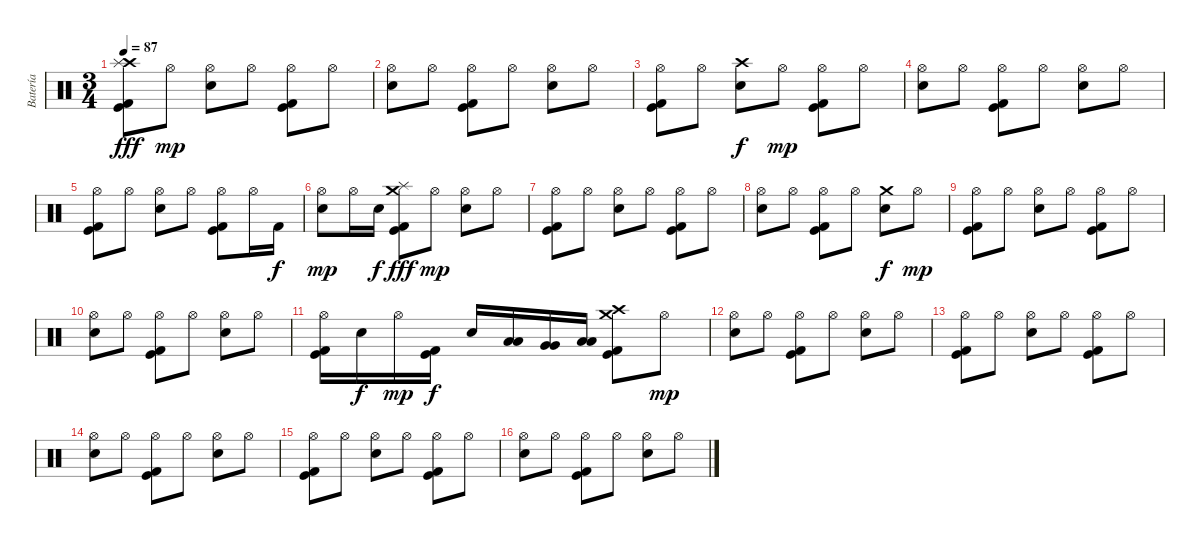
\track ("Batería" "Batería") {instrument percussion}
\staff {score}
\articulation defaults
\ts (3 4)
\tempo 87
\clef neutral
\ks c
("Crash high (hit)" "Splash (hit)" "Kick (hit)" "Kick (hit) 2").8{dy fff} "Hi-Hat (open)".8{dy mp} ("Hi-Hat (open)" "Electric Snare (hit)").8 "Hi-Hat (open)".8 ("Hi-Hat (open)" "Kick (hit)" "Kick (hit) 2").8 "Hi-Hat (open)".8 |
("Hi-Hat (open)" "Electric Snare (hit)").8 "Hi-Hat (open)".8 ("Hi-Hat (open)" "Kick (hit)" "Kick (hit) 2").8 "Hi-Hat (open)".8 ("Hi-Hat (open)" "Electric Snare (hit)").8 "Hi-Hat (open)".8 |
("Hi-Hat (open)" "Kick (hit)" "Kick (hit) 2").8 "Hi-Hat (open)".8 ("Crash high (hit)" "Electric Snare (hit)").8{dy f} "Hi-Hat (open)".8{dy mp} ("Hi-Hat (open)" "Kick (hit)" "Kick (hit) 2").8 "Hi-Hat (open)".8 |
("Hi-Hat (open)" "Electric Snare (hit)").8 "Hi-Hat (open)".8 ("Hi-Hat (open)" "Kick (hit)" "Kick (hit) 2").8 "Hi-Hat (open)".8 ("Hi-Hat (open)" "Electric Snare (hit)").8 "Hi-Hat (open)".8 |
("Hi-Hat (open)" "Kick (hit)" "Kick (hit) 2").8 "Hi-Hat (open)".8 ("Hi-Hat (open)" "Electric Snare (hit)").8 "Hi-Hat (open)".8 ("Hi-Hat (open)" "Kick (hit)" "Kick (hit) 2").8 "Hi-Hat (open)".16 "Kick (hit) 2".16{dy f} |
("Hi-Hat (open)" "Electric Snare (hit)").8{dy mp} "Hi-Hat (open)".16 "Electric Snare (hit)".16{dy f} ("Crash medium (hit)" "Splash (hit)" "Kick (hit)" "Kick (hit) 2").8{dy fff} "Hi-Hat (open)".8{dy mp} ("Hi-Hat (open)" "Electric Snare (hit)").8 "Hi-Hat (open)".8 |
("Hi-Hat (open)" "Kick (hit)" "Kick (hit) 2").8 "Hi-Hat (open)".8 ("Hi-Hat (open)" "Electric Snare (hit)").8 "Hi-Hat (open)".8 ("Hi-Hat (open)" "Kick (hit)" "Kick (hit) 2").8 "Hi-Hat (open)".8 |
("Hi-Hat (open)" "Electric Snare (hit)").8 "Hi-Hat (open)".8 ("Hi-Hat (open)" "Kick (hit)" "Kick (hit) 2").8 "Hi-Hat (open)".8 ("Crash medium (hit)" "Electric Snare (hit)").8{dy f} "Hi-Hat (open)".8{dy mp} |
("Hi-Hat (open)" "Kick (hit)" "Kick (hit) 2").8 "Hi-Hat (open)".8 ("Hi-Hat (open)" "Electric Snare (hit)").8 "Hi-Hat (open)".8 ("Hi-Hat (open)" "Kick (hit)" "Kick (hit) 2").8 "Hi-Hat (open)".8 |
("Hi-Hat (open)" "Electric Snare (hit)").8 "Hi-Hat (open)".8 ("Hi-Hat (open)" "Kick (hit)" "Kick (hit) 2").8 "Hi-Hat (open)".8 ("Hi-Hat (open)" "Electric Snare (hit)").8 "Hi-Hat (open)".8 |
("Hi-Hat (open)" "Kick (hit)" "Kick (hit) 2").16 "Electric Snare (hit)".16{dy f} "Hi-Hat (open)".16{dy mp} ("Kick (hit)" "Kick (hit) 2").16{dy f} "Electric Snare (hit)".16 ("Low Tom (hit)" "Low Tom (hit)").16 ("Very Low Tom (hit)" "Very Low Tom (hit)").16 ("Low Floor Tom (hit)" "Low Floor Tom (hit)").16 ("Crash high (hit)" "Crash medium (hit)" "Kick (hit)" "Kick (hit) 2").8 "Hi-Hat (open)".8{dy mp} |
("Hi-Hat (open)" "Electric Snare (hit)").8 "Hi-Hat (open)".8 ("Hi-Hat (open)" "Kick (hit)" "Kick (hit) 2").8 "Hi-Hat (open)".8 ("Hi-Hat (open)" "Electric Snare (hit)").8 "Hi-Hat (open)".8 |
("Hi-Hat (open)" "Kick (hit)" "Kick (hit) 2").8 "Hi-Hat (open)".8 ("Hi-Hat (open)" "Electric Snare (hit)").8 "Hi-Hat (open)".8 ("Hi-Hat (open)" "Kick (hit)" "Kick (hit) 2").8 "Hi-Hat (open)".8 |
("Hi-Hat (open)" "Electric Snare (hit)").8 "Hi-Hat (open)".8 ("Hi-Hat (open)" "Kick (hit)" "Kick (hit) 2").8 "Hi-Hat (open)".8 ("Hi-Hat (open)" "Electric Snare (hit)").8 "Hi-Hat (open)".8 |
("Hi-Hat (open)" "Kick (hit)" "Kick (hit) 2").8 "Hi-Hat (open)".8 ("Hi-Hat (open)" "Electric Snare (hit)").8 "Hi-Hat (open)".8 ("Hi-Hat (open)" "Kick (hit)" "Kick (hit) 2").8 "Hi-Hat (open)".8 |
("Hi-Hat (open)" "Electric Snare (hit)").8 "Hi-Hat (open)".8 ("Hi-Hat (open)" "Kick (hit)" "Kick (hit) 2").8 "Hi-Hat (open)".8 ("Hi-Hat (open)" "Electric Snare (hit)").8 "Hi-Hat (open)".8
